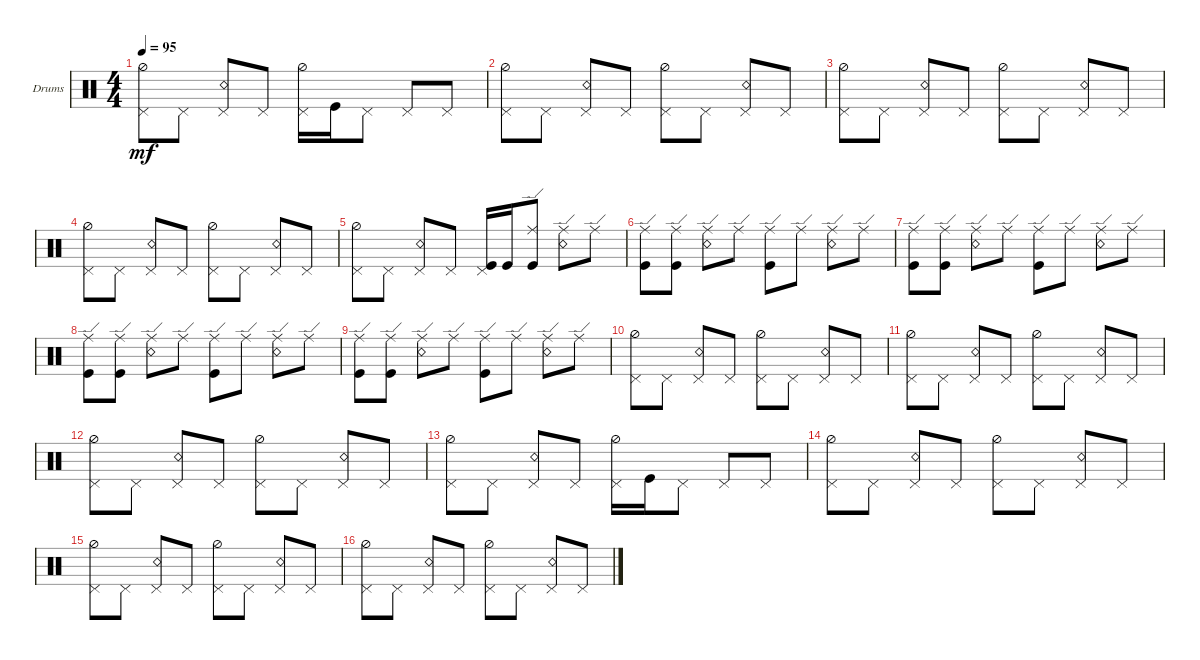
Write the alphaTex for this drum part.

\bracketExtendMode groupsimilarinstruments
\firstSystemTrackNameOrientation horizontal
\otherSystemsTrackNameOrientation horizontal
\track ("Drumkit" "Drums") {instrument percussion}
\staff {score}
\articulation defaults
\ts (4 4)
\tempo 95
\clef neutral
\ks c
("Pedal Hi-Hat (hit)" "Hi-Hat (half)").8{dy mf} "Pedal Hi-Hat (hit)".8 ("Pedal Hi-Hat (hit)" "Snare (rim shot)").8 "Pedal Hi-Hat (hit)".8 ("Pedal Hi-Hat (hit)" "Hi-Hat (half)").16 "Kick (hit)".16 "Pedal Hi-Hat (hit)".8 "Pedal Hi-Hat (hit)".8 "Pedal Hi-Hat (hit)".8 |
("Pedal Hi-Hat (hit)" "Hi-Hat (half)").8 "Pedal Hi-Hat (hit)".8 ("Pedal Hi-Hat (hit)" "Snare (rim shot)").8 "Pedal Hi-Hat (hit)".8 ("Pedal Hi-Hat (hit)" "Hi-Hat (half)").8 "Pedal Hi-Hat (hit)".8 ("Pedal Hi-Hat (hit)" "Snare (rim shot)").8 "Pedal Hi-Hat (hit)".8 |
("Pedal Hi-Hat (hit)" "Hi-Hat (half)").8 "Pedal Hi-Hat (hit)".8 ("Pedal Hi-Hat (hit)" "Snare (rim shot)").8 "Pedal Hi-Hat (hit)".8 ("Pedal Hi-Hat (hit)" "Hi-Hat (half)").8 "Pedal Hi-Hat (hit)".8 ("Pedal Hi-Hat (hit)" "Snare (rim shot)").8 "Pedal Hi-Hat (hit)".8 |
("Pedal Hi-Hat (hit)" "Hi-Hat (half)").8 "Pedal Hi-Hat (hit)".8 ("Pedal Hi-Hat (hit)" "Snare (rim shot)").8 "Pedal Hi-Hat (hit)".8 ("Pedal Hi-Hat (hit)" "Hi-Hat (half)").8 "Pedal Hi-Hat (hit)".8 ("Pedal Hi-Hat (hit)" "Snare (rim shot)").8 "Pedal Hi-Hat (hit)".8 |
("Pedal Hi-Hat (hit)" "Hi-Hat (half)").8 "Pedal Hi-Hat (hit)".8 ("Pedal Hi-Hat (hit)" "Snare (rim shot)").8 "Pedal Hi-Hat (hit)".8 ("Pedal Hi-Hat (hit)" "Kick (hit)").16 "Kick (hit)".16 ("Kick (hit)" "Ride (edge)").8 ("Snare (rim shot)" "Ride (edge)").8 "Ride (edge)".8 |
("Kick (hit)" "Ride (edge)").8 ("Kick (hit)" "Ride (edge)").8 ("Snare (rim shot)" "Ride (edge)").8 "Ride (edge)".8 ("Kick (hit)" "Ride (edge)").8 "Ride (edge)".8 ("Snare (rim shot)" "Ride (edge)").8 "Ride (edge)".8 |
("Kick (hit)" "Ride (edge)").8 ("Kick (hit)" "Ride (edge)").8 ("Snare (rim shot)" "Ride (edge)").8 "Ride (edge)".8 ("Kick (hit)" "Ride (edge)").8 "Ride (edge)".8 ("Snare (rim shot)" "Ride (edge)").8 "Ride (edge)".8 |
("Kick (hit)" "Ride (edge)").8 ("Kick (hit)" "Ride (edge)").8 ("Snare (rim shot)" "Ride (edge)").8 "Ride (edge)".8 ("Kick (hit)" "Ride (edge)").8 "Ride (edge)".8 ("Snare (rim shot)" "Ride (edge)").8 "Ride (edge)".8 |
("Kick (hit)" "Ride (edge)").8 ("Kick (hit)" "Ride (edge)").8 ("Snare (rim shot)" "Ride (edge)").8 "Ride (edge)".8 ("Kick (hit)" "Ride (edge)").8 "Ride (edge)".8 ("Snare (rim shot)" "Ride (edge)").8 "Ride (edge)".8 |
("Pedal Hi-Hat (hit)" "Hi-Hat (half)").8 "Pedal Hi-Hat (hit)".8 ("Pedal Hi-Hat (hit)" "Snare (rim shot)").8 "Pedal Hi-Hat (hit)".8 ("Pedal Hi-Hat (hit)" "Hi-Hat (half)").8 "Pedal Hi-Hat (hit)".8 ("Pedal Hi-Hat (hit)" "Snare (rim shot)").8 "Pedal Hi-Hat (hit)".8 |
("Pedal Hi-Hat (hit)" "Hi-Hat (half)").8 "Pedal Hi-Hat (hit)".8 ("Pedal Hi-Hat (hit)" "Snare (rim shot)").8 "Pedal Hi-Hat (hit)".8 ("Pedal Hi-Hat (hit)" "Hi-Hat (half)").8 "Pedal Hi-Hat (hit)".8 ("Pedal Hi-Hat (hit)" "Snare (rim shot)").8 "Pedal Hi-Hat (hit)".8 |
("Pedal Hi-Hat (hit)" "Hi-Hat (half)").8 "Pedal Hi-Hat (hit)".8 ("Pedal Hi-Hat (hit)" "Snare (rim shot)").8 "Pedal Hi-Hat (hit)".8 ("Pedal Hi-Hat (hit)" "Hi-Hat (half)").8 "Pedal Hi-Hat (hit)".8 ("Pedal Hi-Hat (hit)" "Snare (rim shot)").8 "Pedal Hi-Hat (hit)".8 |
("Pedal Hi-Hat (hit)" "Hi-Hat (half)").8 "Pedal Hi-Hat (hit)".8 ("Pedal Hi-Hat (hit)" "Snare (rim shot)").8 "Pedal Hi-Hat (hit)".8 ("Pedal Hi-Hat (hit)" "Hi-Hat (half)").16 "Kick (hit)".16 "Pedal Hi-Hat (hit)".8 "Pedal Hi-Hat (hit)".8 "Pedal Hi-Hat (hit)".8 |
("Pedal Hi-Hat (hit)" "Hi-Hat (half)").8 "Pedal Hi-Hat (hit)".8 ("Pedal Hi-Hat (hit)" "Snare (rim shot)").8 "Pedal Hi-Hat (hit)".8 ("Pedal Hi-Hat (hit)" "Hi-Hat (half)").8 "Pedal Hi-Hat (hit)".8 ("Pedal Hi-Hat (hit)" "Snare (rim shot)").8 "Pedal Hi-Hat (hit)".8 |
("Pedal Hi-Hat (hit)" "Hi-Hat (half)").8 "Pedal Hi-Hat (hit)".8 ("Pedal Hi-Hat (hit)" "Snare (rim shot)").8 "Pedal Hi-Hat (hit)".8 ("Pedal Hi-Hat (hit)" "Hi-Hat (half)").8 "Pedal Hi-Hat (hit)".8 ("Pedal Hi-Hat (hit)" "Snare (rim shot)").8 "Pedal Hi-Hat (hit)".8 |
("Pedal Hi-Hat (hit)" "Hi-Hat (half)").8 "Pedal Hi-Hat (hit)".8 ("Pedal Hi-Hat (hit)" "Snare (rim shot)").8 "Pedal Hi-Hat (hit)".8 ("Pedal Hi-Hat (hit)" "Hi-Hat (half)").8 "Pedal Hi-Hat (hit)".8 ("Pedal Hi-Hat (hit)" "Snare (rim shot)").8 "Pedal Hi-Hat (hit)".8
